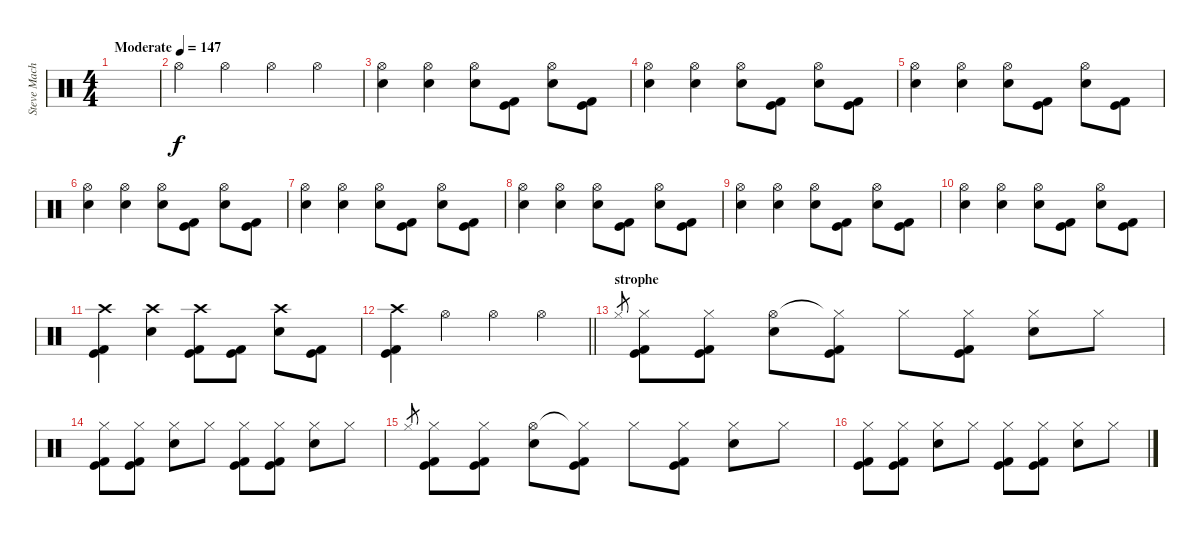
\track ("Steve Machine West" "Steve Mach") {instrument percussion}
\staff {score}
\articulation defaults
\ts (4 4)
\tempo (147 "Moderate")
\clef neutral
\ks c
|
"Hi-Hat (open)".4 "Hi-Hat (open)".4 "Hi-Hat (open)".4 "Hi-Hat (open)".4 |
("Hi-Hat (open)" "Electric Snare (hit)").4 ("Hi-Hat (open)" "Electric Snare (hit)").4 ("Hi-Hat (open)" "Electric Snare (hit)").8 ("Kick (hit) 2" "Kick (hit)").8 ("Hi-Hat (open)" "Electric Snare (hit)").8 ("Kick (hit) 2" "Kick (hit)").8 |
("Hi-Hat (open)" "Electric Snare (hit)").4 ("Hi-Hat (open)" "Electric Snare (hit)").4 ("Hi-Hat (open)" "Electric Snare (hit)").8 ("Kick (hit) 2" "Kick (hit)").8 ("Hi-Hat (open)" "Electric Snare (hit)").8 ("Kick (hit) 2" "Kick (hit)").8 |
("Hi-Hat (open)" "Electric Snare (hit)").4 ("Hi-Hat (open)" "Electric Snare (hit)").4 ("Hi-Hat (open)" "Electric Snare (hit)").8 ("Kick (hit) 2" "Kick (hit)").8 ("Hi-Hat (open)" "Electric Snare (hit)").8 ("Kick (hit) 2" "Kick (hit)").8 |
("Hi-Hat (open)" "Electric Snare (hit)").4 ("Hi-Hat (open)" "Electric Snare (hit)").4 ("Hi-Hat (open)" "Electric Snare (hit)").8 ("Kick (hit) 2" "Kick (hit)").8 ("Hi-Hat (open)" "Electric Snare (hit)").8 ("Kick (hit) 2" "Kick (hit)").8 |
("Hi-Hat (open)" "Electric Snare (hit)").4 ("Hi-Hat (open)" "Electric Snare (hit)").4 ("Hi-Hat (open)" "Electric Snare (hit)").8 ("Kick (hit) 2" "Kick (hit)").8 ("Hi-Hat (open)" "Electric Snare (hit)").8 ("Kick (hit) 2" "Kick (hit)").8 |
("Hi-Hat (open)" "Electric Snare (hit)").4 ("Hi-Hat (open)" "Electric Snare (hit)").4 ("Hi-Hat (open)" "Electric Snare (hit)").8 ("Kick (hit) 2" "Kick (hit)").8 ("Hi-Hat (open)" "Electric Snare (hit)").8 ("Kick (hit) 2" "Kick (hit)").8 |
("Hi-Hat (open)" "Electric Snare (hit)").4 ("Hi-Hat (open)" "Electric Snare (hit)").4 ("Hi-Hat (open)" "Electric Snare (hit)").8 ("Kick (hit) 2" "Kick (hit)").8 ("Hi-Hat (open)" "Electric Snare (hit)").8 ("Kick (hit) 2" "Kick (hit)").8 |
("Hi-Hat (open)" "Electric Snare (hit)").4 ("Hi-Hat (open)" "Electric Snare (hit)").4 ("Hi-Hat (open)" "Electric Snare (hit)").8 ("Kick (hit) 2" "Kick (hit)").8 ("Hi-Hat (open)" "Electric Snare (hit)").8 ("Kick (hit) 2" "Kick (hit)").8 |
("Crash high (hit)" "Kick (hit) 2" "Kick (hit)").4 ("Crash high (hit)" "Electric Snare (hit)").4 ("Crash high (hit)" "Kick (hit) 2" "Kick (hit)").8 ("Kick (hit) 2" "Kick (hit)").8 ("Crash high (hit)" "Electric Snare (hit)").8 ("Kick (hit) 2" "Kick (hit)").8 |
\barLineRight lightlight
("Crash high (hit)" "Kick (hit) 2" "Kick (hit)").4 "Hi-Hat (open)".4 "Hi-Hat (open)".4 "Hi-Hat (open)".4 |
\section ("" "strophe")
"Hi-Hat (closed)".8{gr} ("Hi-Hat (closed)" "Kick (hit)" "Kick (hit) 2").8 ("Hi-Hat (closed)" "Kick (hit)" "Kick (hit) 2").8 ("Hi-Hat (open)" "Electric Snare (hit)").8 ("Hi-Hat (closed)"{t} "Kick (hit)" "Kick (hit) 2").8 "Hi-Hat (closed)".8 ("Hi-Hat (closed)" "Kick (hit)" "Kick (hit) 2").8 ("Hi-Hat (closed)" "Electric Snare (hit)").8 "Hi-Hat (closed)".8 |
("Hi-Hat (closed)" "Kick (hit)" "Kick (hit) 2").8 ("Hi-Hat (closed)" "Kick (hit)" "Kick (hit) 2").8 ("Hi-Hat (closed)" "Electric Snare (hit)").8 "Hi-Hat (closed)".8 ("Hi-Hat (closed)" "Kick (hit)" "Kick (hit) 2").8 ("Hi-Hat (closed)" "Kick (hit)" "Kick (hit) 2").8 ("Hi-Hat (closed)" "Electric Snare (hit)").8 "Hi-Hat (closed)".8 |
"Hi-Hat (closed)".8{gr} ("Hi-Hat (closed)" "Kick (hit)" "Kick (hit) 2").8 ("Hi-Hat (closed)" "Kick (hit)" "Kick (hit) 2").8 ("Hi-Hat (open)" "Electric Snare (hit)").8 ("Hi-Hat (closed)"{t} "Kick (hit)" "Kick (hit) 2").8 "Hi-Hat (closed)".8 ("Hi-Hat (closed)" "Kick (hit)" "Kick (hit) 2").8 ("Hi-Hat (closed)" "Electric Snare (hit)").8 "Hi-Hat (closed)".8 |
("Hi-Hat (closed)" "Kick (hit)" "Kick (hit) 2").8 ("Hi-Hat (closed)" "Kick (hit)" "Kick (hit) 2").8 ("Hi-Hat (closed)" "Electric Snare (hit)").8 "Hi-Hat (closed)".8 ("Hi-Hat (closed)" "Kick (hit)" "Kick (hit) 2").8 ("Hi-Hat (closed)" "Kick (hit)" "Kick (hit) 2").8 ("Hi-Hat (closed)" "Electric Snare (hit)").8 "Hi-Hat (closed)".8
